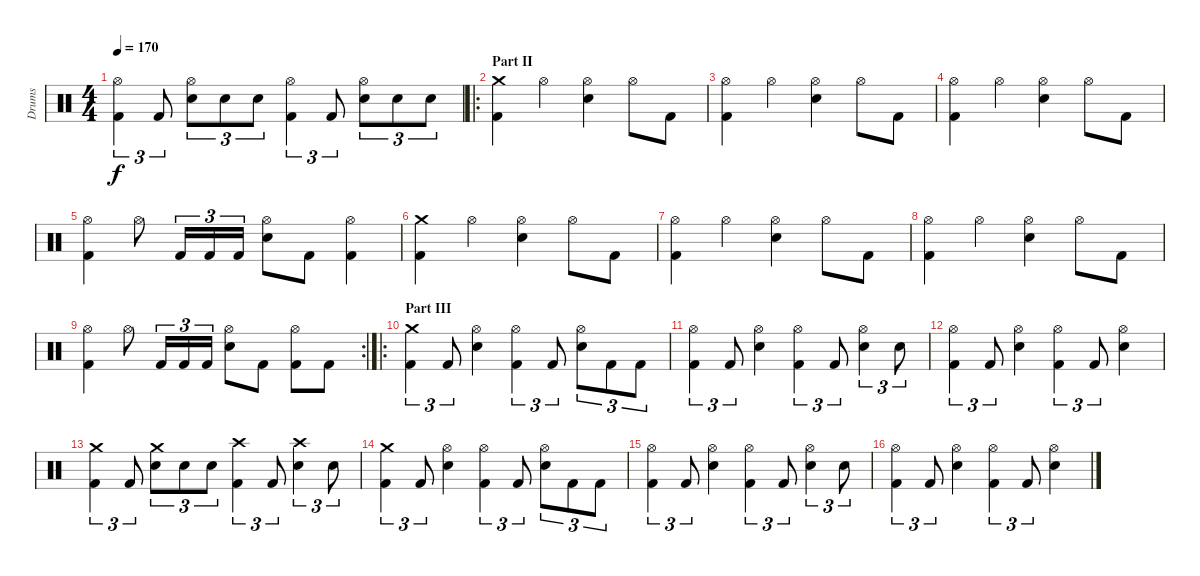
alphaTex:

\track ("Drums" "Drums") {instrument percussion}
\staff {score}
\articulation defaults
\ts (4 4)
\tempo 170
\clef neutral
\ks c
("Kick (hit) 2" "Hi-Hat (open)").4{tu (3 2) dy f} "Kick (hit) 2".8{tu (3 2)} ("Electric Snare (hit)" "Hi-Hat (open)").8{tu (3 2)} "Electric Snare (hit)".8{tu (3 2)} "Electric Snare (hit)".8{tu (3 2)} ("Kick (hit) 2" "Hi-Hat (open)").4{tu (3 2)} "Kick (hit) 2".8{tu (3 2)} ("Electric Snare (hit)" "Hi-Hat (open)").8{tu (3 2)} "Electric Snare (hit)".8{tu (3 2)} "Electric Snare (hit)".8{tu (3 2)} |
\ro
\section ("" "Part II")
("Kick (hit) 2" "Crash medium (hit)").4 "Hi-Hat (open)".4 ("Electric Snare (hit)" "Hi-Hat (open)").4 "Hi-Hat (open)".8 "Kick (hit) 2".8 |
("Kick (hit) 2" "Hi-Hat (open)").4 "Hi-Hat (open)".4 ("Electric Snare (hit)" "Hi-Hat (open)").4 "Hi-Hat (open)".8 "Kick (hit) 2".8 |
("Kick (hit) 2" "Hi-Hat (open)").4 "Hi-Hat (open)".4 ("Electric Snare (hit)" "Hi-Hat (open)").4 "Hi-Hat (open)".8 "Kick (hit) 2".8 |
("Kick (hit) 2" "Hi-Hat (open)").4 "Hi-Hat (open)".8 "Kick (hit) 2".16{tu (3 2)} "Kick (hit) 2".16{tu (3 2)} "Kick (hit) 2".16{tu (3 2)} ("Electric Snare (hit)" "Hi-Hat (open)").8 "Kick (hit) 2".8 ("Kick (hit) 2" "Hi-Hat (open)").4 |
("Kick (hit) 2" "Crash medium (hit)").4 "Hi-Hat (open)".4 ("Electric Snare (hit)" "Hi-Hat (open)").4 "Hi-Hat (open)".8 "Kick (hit) 2".8 |
("Kick (hit) 2" "Hi-Hat (open)").4 "Hi-Hat (open)".4 ("Electric Snare (hit)" "Hi-Hat (open)").4 "Hi-Hat (open)".8 "Kick (hit) 2".8 |
("Kick (hit) 2" "Hi-Hat (open)").4 "Hi-Hat (open)".4 ("Electric Snare (hit)" "Hi-Hat (open)").4 "Hi-Hat (open)".8 "Kick (hit) 2".8 |
\rc 2
("Kick (hit) 2" "Hi-Hat (open)").4 "Hi-Hat (open)".8 "Kick (hit) 2".16{tu (3 2)} "Kick (hit) 2".16{tu (3 2)} "Kick (hit) 2".16{tu (3 2)} ("Electric Snare (hit)" "Hi-Hat (open)").8 "Kick (hit) 2".8 ("Kick (hit) 2" "Hi-Hat (open)").8 "Kick (hit) 2".8 |
\ro
\section ("" "Part III")
("Kick (hit) 2" "Crash medium (hit)").4{tu (3 2)} "Kick (hit) 2".8{tu (3 2)} ("Electric Snare (hit)" "Hi-Hat (open)").4 ("Kick (hit) 2" "Hi-Hat (open)").4{tu (3 2)} "Kick (hit) 2".8{tu (3 2)} ("Electric Snare (hit)" "Hi-Hat (open)").8{tu (3 2)} "Kick (hit) 2".8{tu (3 2)} "Kick (hit) 2".8{tu (3 2)} |
("Kick (hit) 2" "Hi-Hat (open)").4{tu (3 2)} "Kick (hit) 2".8{tu (3 2)} ("Electric Snare (hit)" "Hi-Hat (open)").4 ("Kick (hit) 2" "Hi-Hat (open)").4{tu (3 2)} "Kick (hit) 2".8{tu (3 2)} ("Electric Snare (hit)" "Hi-Hat (open)").4{tu (3 2)} "Electric Snare (hit)".8{tu (3 2)} |
("Kick (hit) 2" "Hi-Hat (open)").4{tu (3 2)} "Kick (hit) 2".8{tu (3 2)} ("Electric Snare (hit)" "Hi-Hat (open)").4 ("Kick (hit) 2" "Hi-Hat (open)").4{tu (3 2)} "Kick (hit) 2".8{tu (3 2)} ("Electric Snare (hit)" "Hi-Hat (open)").4 |
("Kick (hit) 2" "Crash medium (hit)").4{tu (3 2)} "Kick (hit) 2".8{tu (3 2)} ("Electric Snare (hit)" "Crash medium (hit)").8{tu (3 2)} "Electric Snare (hit)".8{tu (3 2)} "Electric Snare (hit)".8{tu (3 2)} ("Kick (hit) 2" "Crash high (hit)").4{tu (3 2)} "Kick (hit) 2".8{tu (3 2)} ("Electric Snare (hit)" "Crash high (hit)").4{tu (3 2)} "Electric Snare (hit)".8{tu (3 2)} |
("Kick (hit) 2" "Crash medium (hit)").4{tu (3 2)} "Kick (hit) 2".8{tu (3 2)} ("Electric Snare (hit)" "Hi-Hat (open)").4 ("Kick (hit) 2" "Hi-Hat (open)").4{tu (3 2)} "Kick (hit) 2".8{tu (3 2)} ("Electric Snare (hit)" "Hi-Hat (open)").8{tu (3 2)} "Kick (hit) 2".8{tu (3 2)} "Kick (hit) 2".8{tu (3 2)} |
("Kick (hit) 2" "Hi-Hat (open)").4{tu (3 2)} "Kick (hit) 2".8{tu (3 2)} ("Electric Snare (hit)" "Hi-Hat (open)").4 ("Kick (hit) 2" "Hi-Hat (open)").4{tu (3 2)} "Kick (hit) 2".8{tu (3 2)} ("Electric Snare (hit)" "Hi-Hat (open)").4{tu (3 2)} "Electric Snare (hit)".8{tu (3 2)} |
("Kick (hit) 2" "Hi-Hat (open)").4{tu (3 2)} "Kick (hit) 2".8{tu (3 2)} ("Electric Snare (hit)" "Hi-Hat (open)").4 ("Kick (hit) 2" "Hi-Hat (open)").4{tu (3 2)} "Kick (hit) 2".8{tu (3 2)} ("Electric Snare (hit)" "Hi-Hat (open)").4
